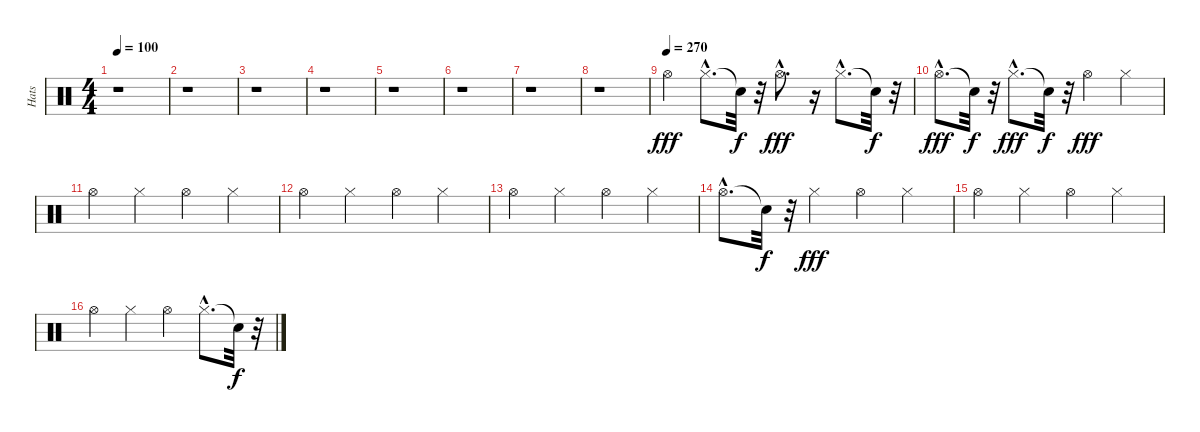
\track ("Hats" "Hats") {instrument percussion}
\staff {score}
\articulation defaults
\ts (4 4)
\tempo 100
\clef neutral
\ks c
r.1{dy fff} |
r.1 |
r.1 |
r.1 |
r.1 |
r.1 |
r.1 |
r.1 |
\tempo (270)
"Hi-Hat (open)".4 "Hi-Hat (closed)"{hac}.8{d} "Snare (hit)"{t}.32{dy f} r.32 "Hi-Hat (open)"{hac}.8{d dy fff} r.16 "Hi-Hat (closed)"{hac}.8{d} "Snare (hit)"{t}.32{dy f} r.32 |
"Hi-Hat (open)"{hac}.8{d dy fff} "Snare (hit)"{t}.32{dy f} r.32 "Hi-Hat (closed)"{hac}.8{d dy fff} "Snare (hit)"{t}.32{dy f} r.32 "Hi-Hat (open)".4{dy fff} "Hi-Hat (closed)".4 |
"Hi-Hat (open)".4 "Hi-Hat (closed)".4 "Hi-Hat (open)".4 "Hi-Hat (closed)".4 |
"Hi-Hat (open)".4 "Hi-Hat (closed)".4 "Hi-Hat (open)".4 "Hi-Hat (closed)".4 |
"Hi-Hat (open)".4 "Hi-Hat (closed)".4 "Hi-Hat (open)".4 "Hi-Hat (closed)".4 |
"Hi-Hat (open)"{hac}.8{d} "Snare (hit)"{t}.32{dy f} r.32 "Hi-Hat (closed)".4{dy fff} "Hi-Hat (open)".4 "Hi-Hat (closed)".4 |
"Hi-Hat (open)".4 "Hi-Hat (closed)".4 "Hi-Hat (open)".4 "Hi-Hat (closed)".4 |
"Hi-Hat (open)".4 "Hi-Hat (closed)".4 "Hi-Hat (open)".4 "Hi-Hat (closed)"{hac}.8{d} "Snare (hit)"{t}.32{dy f} r.32
